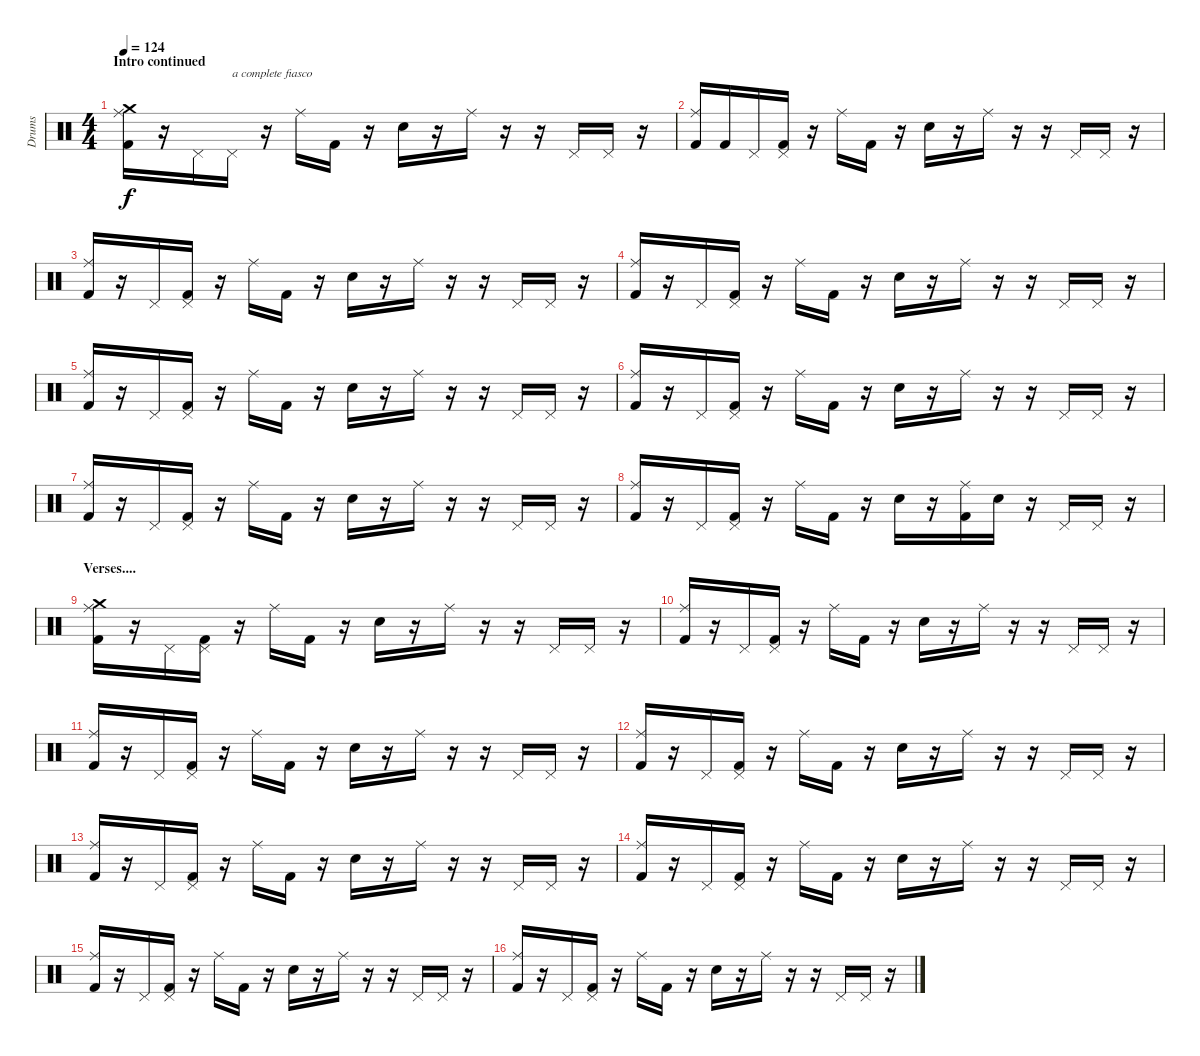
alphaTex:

\track ("Drums" "Drums") {instrument percussion}
\staff {score}
\articulation defaults
\ts (4 4)
\section ("" "Intro continued")
\tempo 124
\clef neutral
\ks c
("Ride (middle)" "Kick (hit) 2" "Crash medium (hit)").16{dy f} r.16 "Pedal Hi-Hat (hit)".16 "Pedal Hi-Hat (hit)".16{txt "a complete fiasco"} r.16 "Ride (middle)".16 "Kick (hit) 2".16 r.16 "Electric Snare (hit)".16 r.16 "Ride (middle)".16 r.16 r.16 "Pedal Hi-Hat (hit)".16 "Pedal Hi-Hat (hit)".16 r.16 |
("Ride (middle)" "Kick (hit) 2").16 "Kick (hit) 2".16 "Pedal Hi-Hat (hit)".16 ("Pedal Hi-Hat (hit)" "Kick (hit) 2").16 r.16 "Ride (middle)".16 "Kick (hit) 2".16 r.16 "Electric Snare (hit)".16 r.16 "Ride (middle)".16 r.16 r.16 "Pedal Hi-Hat (hit)".16 "Pedal Hi-Hat (hit)".16 r.16 |
("Ride (middle)" "Kick (hit) 2").16 r.16 "Pedal Hi-Hat (hit)".16 ("Pedal Hi-Hat (hit)" "Kick (hit) 2").16 r.16 "Ride (middle)".16 "Kick (hit) 2".16 r.16 "Electric Snare (hit)".16 r.16 "Ride (middle)".16 r.16 r.16 "Pedal Hi-Hat (hit)".16 "Pedal Hi-Hat (hit)".16 r.16 |
("Ride (middle)" "Kick (hit) 2").16 r.16 "Pedal Hi-Hat (hit)".16 ("Pedal Hi-Hat (hit)" "Kick (hit) 2").16 r.16 "Ride (middle)".16 "Kick (hit) 2".16 r.16 "Electric Snare (hit)".16 r.16 "Ride (middle)".16 r.16 r.16 "Pedal Hi-Hat (hit)".16 "Pedal Hi-Hat (hit)".16 r.16 |
("Ride (middle)" "Kick (hit) 2").16 r.16 "Pedal Hi-Hat (hit)".16 ("Pedal Hi-Hat (hit)" "Kick (hit) 2").16 r.16 "Ride (middle)".16 "Kick (hit) 2".16 r.16 "Electric Snare (hit)".16 r.16 "Ride (middle)".16 r.16 r.16 "Pedal Hi-Hat (hit)".16 "Pedal Hi-Hat (hit)".16 r.16 |
("Ride (middle)" "Kick (hit) 2").16 r.16 "Pedal Hi-Hat (hit)".16 ("Pedal Hi-Hat (hit)" "Kick (hit) 2").16 r.16 "Ride (middle)".16 "Kick (hit) 2".16 r.16 "Electric Snare (hit)".16 r.16 "Ride (middle)".16 r.16 r.16 "Pedal Hi-Hat (hit)".16 "Pedal Hi-Hat (hit)".16 r.16 |
("Ride (middle)" "Kick (hit) 2").16 r.16 "Pedal Hi-Hat (hit)".16 ("Pedal Hi-Hat (hit)" "Kick (hit) 2").16 r.16 "Ride (middle)".16 "Kick (hit) 2".16 r.16 "Electric Snare (hit)".16 r.16 "Ride (middle)".16 r.16 r.16 "Pedal Hi-Hat (hit)".16 "Pedal Hi-Hat (hit)".16 r.16 |
("Ride (middle)" "Kick (hit) 2").16 r.16 "Pedal Hi-Hat (hit)".16 ("Pedal Hi-Hat (hit)" "Kick (hit) 2").16 r.16 "Ride (middle)".16 "Kick (hit) 2".16 r.16 "Electric Snare (hit)".16 r.16 ("Ride (middle)" "Kick (hit) 2").16 "Electric Snare (hit)".16 r.16 "Pedal Hi-Hat (hit)".16 "Pedal Hi-Hat (hit)".16 r.16 |
\section ("" "Verses....")
("Ride (middle)" "Kick (hit) 2" "Crash medium (hit)").16 r.16 "Pedal Hi-Hat (hit)".16 ("Pedal Hi-Hat (hit)" "Kick (hit) 2").16 r.16 "Ride (middle)".16 "Kick (hit) 2".16 r.16 "Electric Snare (hit)".16 r.16 "Ride (middle)".16 r.16 r.16 "Pedal Hi-Hat (hit)".16 "Pedal Hi-Hat (hit)".16 r.16 |
("Ride (middle)" "Kick (hit) 2").16 r.16 "Pedal Hi-Hat (hit)".16 ("Pedal Hi-Hat (hit)" "Kick (hit) 2").16 r.16 "Ride (middle)".16 "Kick (hit) 2".16 r.16 "Electric Snare (hit)".16 r.16 "Ride (middle)".16 r.16 r.16 "Pedal Hi-Hat (hit)".16 "Pedal Hi-Hat (hit)".16 r.16 |
("Ride (middle)" "Kick (hit) 2").16 r.16 "Pedal Hi-Hat (hit)".16 ("Pedal Hi-Hat (hit)" "Kick (hit) 2").16 r.16 "Ride (middle)".16 "Kick (hit) 2".16 r.16 "Electric Snare (hit)".16 r.16 "Ride (middle)".16 r.16 r.16 "Pedal Hi-Hat (hit)".16 "Pedal Hi-Hat (hit)".16 r.16 |
("Ride (middle)" "Kick (hit) 2").16 r.16 "Pedal Hi-Hat (hit)".16 ("Pedal Hi-Hat (hit)" "Kick (hit) 2").16 r.16 "Ride (middle)".16 "Kick (hit) 2".16 r.16 "Electric Snare (hit)".16 r.16 "Ride (middle)".16 r.16 r.16 "Pedal Hi-Hat (hit)".16 "Pedal Hi-Hat (hit)".16 r.16 |
("Ride (middle)" "Kick (hit) 2").16 r.16 "Pedal Hi-Hat (hit)".16 ("Pedal Hi-Hat (hit)" "Kick (hit) 2").16 r.16 "Ride (middle)".16 "Kick (hit) 2".16 r.16 "Electric Snare (hit)".16 r.16 "Ride (middle)".16 r.16 r.16 "Pedal Hi-Hat (hit)".16 "Pedal Hi-Hat (hit)".16 r.16 |
("Ride (middle)" "Kick (hit) 2").16 r.16 "Pedal Hi-Hat (hit)".16 ("Pedal Hi-Hat (hit)" "Kick (hit) 2").16 r.16 "Ride (middle)".16 "Kick (hit) 2".16 r.16 "Electric Snare (hit)".16 r.16 "Ride (middle)".16 r.16 r.16 "Pedal Hi-Hat (hit)".16 "Pedal Hi-Hat (hit)".16 r.16 |
("Ride (middle)" "Kick (hit) 2").16 r.16 "Pedal Hi-Hat (hit)".16 ("Pedal Hi-Hat (hit)" "Kick (hit) 2").16 r.16 "Ride (middle)".16 "Kick (hit) 2".16 r.16 "Electric Snare (hit)".16 r.16 "Ride (middle)".16 r.16 r.16 "Pedal Hi-Hat (hit)".16 "Pedal Hi-Hat (hit)".16 r.16 |
("Ride (middle)" "Kick (hit) 2").16 r.16 "Pedal Hi-Hat (hit)".16 ("Pedal Hi-Hat (hit)" "Kick (hit) 2").16 r.16 "Ride (middle)".16 "Kick (hit) 2".16 r.16 "Electric Snare (hit)".16 r.16 "Ride (middle)".16 r.16 r.16 "Pedal Hi-Hat (hit)".16 "Pedal Hi-Hat (hit)".16 r.16
